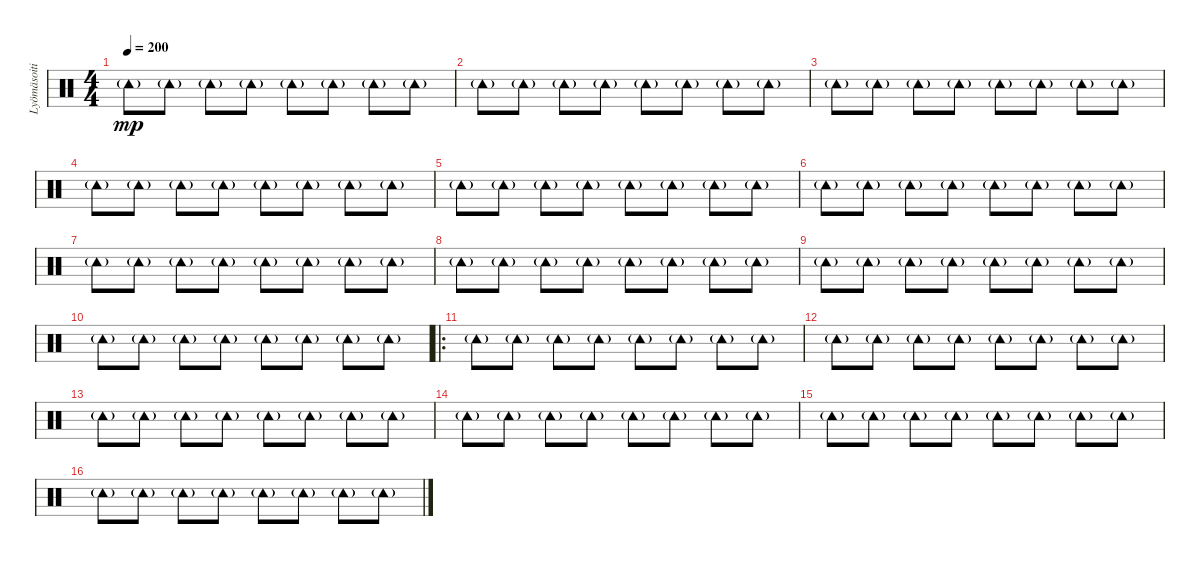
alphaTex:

\track ("Lyömäsoitin" "Lyömäsoiti") {instrument percussion}
\staff {score}
\articulation defaults
\ts (4 4)
\tempo 200
\clef neutral
\ks c "Tambourine (hit)"{g}.8{dy mp} "Tambourine (hit)"{g}.8 "Tambourine (hit)"{g}.8 "Tambourine (hit)"{g}.8 "Tambourine (hit)"{g}.8 "Tambourine (hit)"{g}.8 "Tambourine (hit)"{g}.8 "Tambourine (hit)"{g}.8
|
"Tambourine (hit)"{g}.8 "Tambourine (hit)"{g}.8 "Tambourine (hit)"{g}.8 "Tambourine (hit)"{g}.8 "Tambourine (hit)"{g}.8 "Tambourine (hit)"{g}.8 "Tambourine (hit)"{g}.8 "Tambourine (hit)"{g}.8 |
"Tambourine (hit)"{g}.8 "Tambourine (hit)"{g}.8 "Tambourine (hit)"{g}.8 "Tambourine (hit)"{g}.8 "Tambourine (hit)"{g}.8 "Tambourine (hit)"{g}.8 "Tambourine (hit)"{g}.8 "Tambourine (hit)"{g}.8 |
"Tambourine (hit)"{g}.8 "Tambourine (hit)"{g}.8 "Tambourine (hit)"{g}.8 "Tambourine (hit)"{g}.8 "Tambourine (hit)"{g}.8 "Tambourine (hit)"{g}.8 "Tambourine (hit)"{g}.8 "Tambourine (hit)"{g}.8 |
"Tambourine (hit)"{g}.8 "Tambourine (hit)"{g}.8 "Tambourine (hit)"{g}.8 "Tambourine (hit)"{g}.8 "Tambourine (hit)"{g}.8 "Tambourine (hit)"{g}.8 "Tambourine (hit)"{g}.8 "Tambourine (hit)"{g}.8 |
"Tambourine (hit)"{g}.8 "Tambourine (hit)"{g}.8 "Tambourine (hit)"{g}.8 "Tambourine (hit)"{g}.8 "Tambourine (hit)"{g}.8 "Tambourine (hit)"{g}.8 "Tambourine (hit)"{g}.8 "Tambourine (hit)"{g}.8 |
"Tambourine (hit)"{g}.8 "Tambourine (hit)"{g}.8 "Tambourine (hit)"{g}.8 "Tambourine (hit)"{g}.8 "Tambourine (hit)"{g}.8 "Tambourine (hit)"{g}.8 "Tambourine (hit)"{g}.8 "Tambourine (hit)"{g}.8 |
"Tambourine (hit)"{g}.8 "Tambourine (hit)"{g}.8 "Tambourine (hit)"{g}.8 "Tambourine (hit)"{g}.8 "Tambourine (hit)"{g}.8 "Tambourine (hit)"{g}.8 "Tambourine (hit)"{g}.8 "Tambourine (hit)"{g}.8 |
"Tambourine (hit)"{g}.8 "Tambourine (hit)"{g}.8 "Tambourine (hit)"{g}.8 "Tambourine (hit)"{g}.8 "Tambourine (hit)"{g}.8 "Tambourine (hit)"{g}.8 "Tambourine (hit)"{g}.8 "Tambourine (hit)"{g}.8 |
"Tambourine (hit)"{g}.8 "Tambourine (hit)"{g}.8 "Tambourine (hit)"{g}.8 "Tambourine (hit)"{g}.8 "Tambourine (hit)"{g}.8 "Tambourine (hit)"{g}.8 "Tambourine (hit)"{g}.8 "Tambourine (hit)"{g}.8 |
\ro "Tambourine (hit)"{g}.8 "Tambourine (hit)"{g}.8 "Tambourine (hit)"{g}.8 "Tambourine (hit)"{g}.8 "Tambourine (hit)"{g}.8 "Tambourine (hit)"{g}.8 "Tambourine (hit)"{g}.8 "Tambourine (hit)"{g}.8
|
"Tambourine (hit)"{g}.8 "Tambourine (hit)"{g}.8 "Tambourine (hit)"{g}.8 "Tambourine (hit)"{g}.8 "Tambourine (hit)"{g}.8 "Tambourine (hit)"{g}.8 "Tambourine (hit)"{g}.8 "Tambourine (hit)"{g}.8 |
"Tambourine (hit)"{g}.8 "Tambourine (hit)"{g}.8 "Tambourine (hit)"{g}.8 "Tambourine (hit)"{g}.8 "Tambourine (hit)"{g}.8 "Tambourine (hit)"{g}.8 "Tambourine (hit)"{g}.8 "Tambourine (hit)"{g}.8 |
"Tambourine (hit)"{g}.8 "Tambourine (hit)"{g}.8 "Tambourine (hit)"{g}.8 "Tambourine (hit)"{g}.8 "Tambourine (hit)"{g}.8 "Tambourine (hit)"{g}.8 "Tambourine (hit)"{g}.8 "Tambourine (hit)"{g}.8 |
"Tambourine (hit)"{g}.8 "Tambourine (hit)"{g}.8 "Tambourine (hit)"{g}.8 "Tambourine (hit)"{g}.8 "Tambourine (hit)"{g}.8 "Tambourine (hit)"{g}.8 "Tambourine (hit)"{g}.8 "Tambourine (hit)"{g}.8 |
"Tambourine (hit)"{g}.8 "Tambourine (hit)"{g}.8 "Tambourine (hit)"{g}.8 "Tambourine (hit)"{g}.8 "Tambourine (hit)"{g}.8 "Tambourine (hit)"{g}.8 "Tambourine (hit)"{g}.8 "Tambourine (hit)"{g}.8
